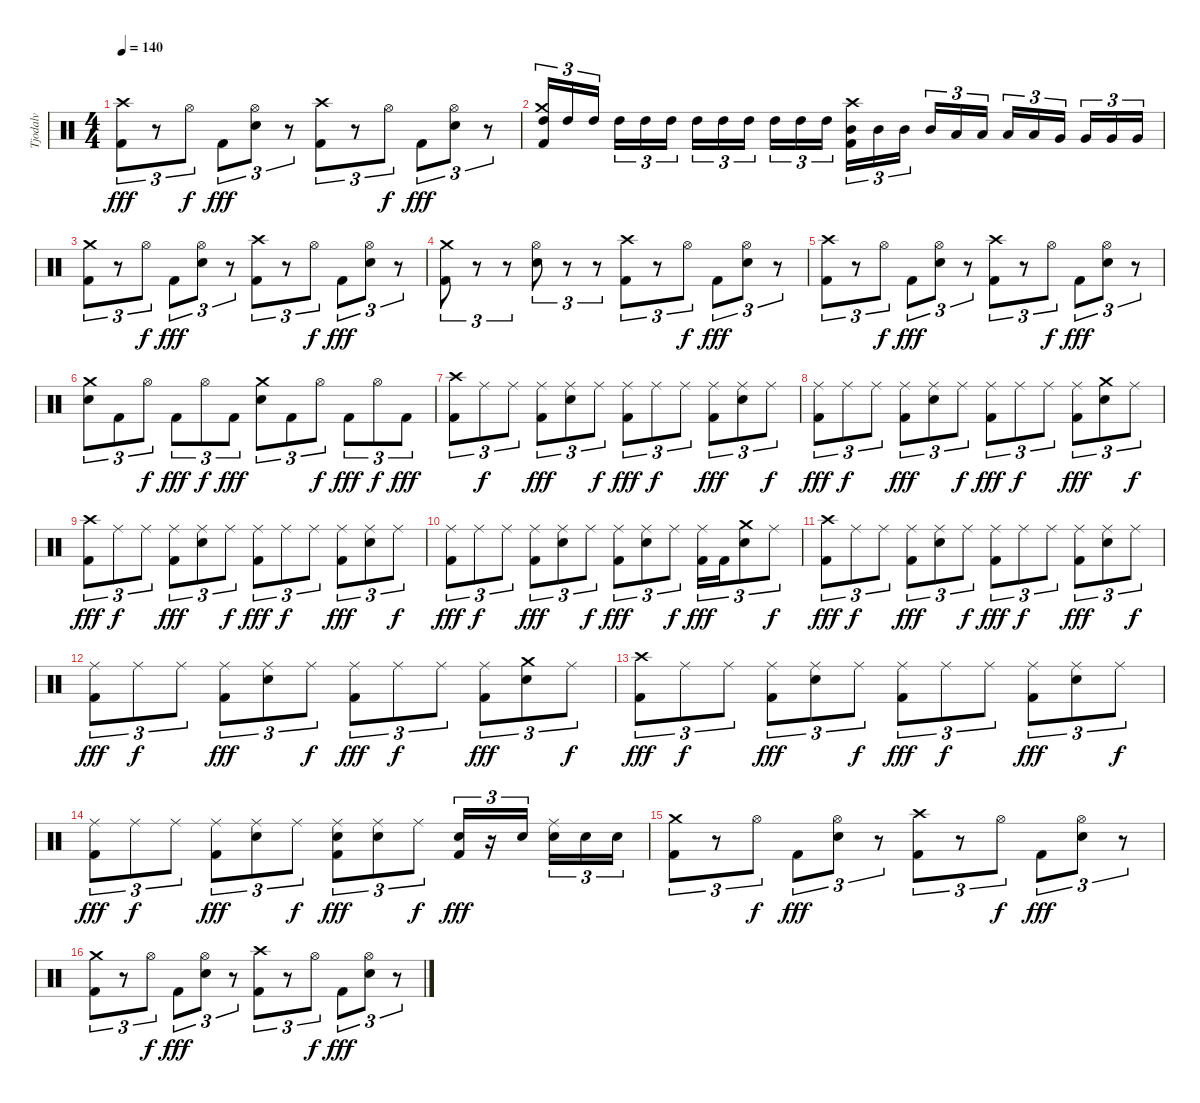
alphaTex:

\track ("Tjodalv" "Tjodalv") {instrument percussion}
\staff {score}
\articulation defaults
\ts (4 4)
\tempo 140
\clef neutral
\ks c
("Crash high (hit)" "Kick (hit) 2").8{tu (3 2) dy fff} r.8{tu (3 2)} "Hi-Hat (open)".8{tu (3 2) dy f} "Kick (hit) 2".8{tu (3 2) dy fff} ("Hi-Hat (open)" "Snare (hit) 2").8{tu (3 2)} r.8{tu (3 2)} ("Crash high (hit)" "Kick (hit) 2").8{tu (3 2)} r.8{tu (3 2)} "Hi-Hat (open)".8{tu (3 2) dy f} "Kick (hit) 2".8{tu (3 2) dy fff} ("Hi-Hat (open)" "Snare (hit) 2").8{tu (3 2)} r.8{tu (3 2)} |
("Crash medium (hit)" "High Tom (hit)" "Kick (hit) 2").16{tu (3 2)} "High Tom (hit)".16{tu (3 2)} "High Tom (hit)".16{tu (3 2) beam splitsecondary} "High Tom (hit)".16{tu (3 2)} "High Tom (hit)".16{tu (3 2)} "High Tom (hit)".16{tu (3 2)} "High Tom (hit)".16{tu (3 2)} "High Tom (hit)".16{tu (3 2)} "High Tom (hit)".16{tu (3 2) beam splitsecondary} "High Tom (hit)".16{tu (3 2)} "High Tom (hit)".16{tu (3 2)} "High Tom (hit)".16{tu (3 2)} ("Crash high (hit)" "Mid Tom (hit)" "Kick (hit) 2").16{tu (3 2)} "Mid Tom (hit)".16{tu (3 2)} "Mid Tom (hit)".16{tu (3 2) beam splitsecondary} "Mid Tom (hit)".16{tu (3 2)} "Low Tom (hit)".16{tu (3 2)} "Low Tom (hit)".16{tu (3 2)} "Low Tom (hit)".16{tu (3 2)} "Low Tom (hit)".16{tu (3 2)} "Very Low Tom (hit)".16{tu (3 2) beam splitsecondary} "Very Low Tom (hit)".16{tu (3 2)} "Very Low Tom (hit)".16{tu (3 2)} "Very Low Tom (hit)".16{tu (3 2)} |
("Crash medium (hit)" "Kick (hit) 2").8{tu (3 2)} r.8{tu (3 2)} "Hi-Hat (open)".8{tu (3 2) dy f} "Kick (hit) 2".8{tu (3 2) dy fff} ("Hi-Hat (open)" "Snare (hit) 2").8{tu (3 2)} r.8{tu (3 2)} ("Crash high (hit)" "Kick (hit) 2").8{tu (3 2)} r.8{tu (3 2)} "Hi-Hat (open)".8{tu (3 2) dy f} "Kick (hit) 2".8{tu (3 2) dy fff} ("Hi-Hat (open)" "Snare (hit) 2").8{tu (3 2)} r.8{tu (3 2)} |
("Crash medium (hit)" "Kick (hit) 2").8{tu (3 2)} r.8{tu (3 2)} r.8{tu (3 2)} ("Hi-Hat (open)" "Snare (hit) 2").8{tu (3 2)} r.8{tu (3 2)} r.8{tu (3 2)} ("Crash high (hit)" "Kick (hit) 2").8{tu (3 2)} r.8{tu (3 2)} "Hi-Hat (open)".8{tu (3 2) dy f} "Kick (hit) 2".8{tu (3 2) dy fff} ("Hi-Hat (open)" "Snare (hit) 2").8{tu (3 2)} r.8{tu (3 2)} |
("Crash high (hit)" "Kick (hit) 2").8{tu (3 2)} r.8{tu (3 2)} "Hi-Hat (open)".8{tu (3 2) dy f} "Kick (hit) 2".8{tu (3 2) dy fff} ("Hi-Hat (open)" "Snare (hit) 2").8{tu (3 2)} r.8{tu (3 2)} ("Crash high (hit)" "Kick (hit) 2").8{tu (3 2)} r.8{tu (3 2)} "Hi-Hat (open)".8{tu (3 2) dy f} "Kick (hit) 2".8{tu (3 2) dy fff} ("Hi-Hat (open)" "Snare (hit) 2").8{tu (3 2)} r.8{tu (3 2)} |
("Crash medium (hit)" "Snare (hit) 2").8{tu (3 2)} "Kick (hit) 2".8{tu (3 2)} "Hi-Hat (open)".8{tu (3 2) dy f} "Kick (hit) 2".8{tu (3 2) dy fff} "Hi-Hat (open)".8{tu (3 2) dy f} "Kick (hit) 2".8{tu (3 2) dy fff} ("Crash medium (hit)" "Snare (hit) 2").8{tu (3 2)} "Kick (hit) 2".8{tu (3 2)} "Hi-Hat (open)".8{tu (3 2) dy f} "Kick (hit) 2".8{tu (3 2) dy fff} "Hi-Hat (open)".8{tu (3 2) dy f} "Kick (hit) 2".8{tu (3 2) dy fff} |
("Crash high (hit)" "Kick (hit) 2").8{tu (3 2)} "Ride (middle)".8{tu (3 2) dy f} "Ride (middle)".8{tu (3 2)} ("Ride (middle)" "Kick (hit) 2").8{tu (3 2) dy fff} ("Ride (middle)" "Snare (hit) 2").8{tu (3 2)} "Ride (middle)".8{tu (3 2) dy f} ("Ride (middle)" "Kick (hit) 2").8{tu (3 2) dy fff} "Ride (middle)".8{tu (3 2) dy f} "Ride (middle)".8{tu (3 2)} ("Ride (middle)" "Kick (hit) 2").8{tu (3 2) dy fff} ("Ride (middle)" "Snare (hit) 2").8{tu (3 2)} "Ride (middle)".8{tu (3 2) dy f} |
("Ride (middle)" "Kick (hit) 2").8{tu (3 2) dy fff} "Ride (middle)".8{tu (3 2) dy f} "Ride (middle)".8{tu (3 2)} ("Ride (middle)" "Kick (hit) 2").8{tu (3 2) dy fff} ("Ride (middle)" "Snare (hit) 2").8{tu (3 2)} "Ride (middle)".8{tu (3 2) dy f} ("Ride (middle)" "Kick (hit) 2").8{tu (3 2) dy fff} "Ride (middle)".8{tu (3 2) dy f} "Ride (middle)".8{tu (3 2)} ("Ride (middle)" "Kick (hit) 2").8{tu (3 2) dy fff} ("Crash medium (hit)" "Snare (hit) 2").8{tu (3 2)} "Ride (middle)".8{tu (3 2) dy f} |
("Crash high (hit)" "Kick (hit) 2").8{tu (3 2) dy fff} "Ride (middle)".8{tu (3 2) dy f} "Ride (middle)".8{tu (3 2)} ("Ride (middle)" "Kick (hit) 2").8{tu (3 2) dy fff} ("Ride (middle)" "Snare (hit) 2").8{tu (3 2)} "Ride (middle)".8{tu (3 2) dy f} ("Ride (middle)" "Kick (hit) 2").8{tu (3 2) dy fff} "Ride (middle)".8{tu (3 2) dy f} "Ride (middle)".8{tu (3 2)} ("Ride (middle)" "Kick (hit) 2").8{tu (3 2) dy fff} ("Ride (middle)" "Snare (hit) 2").8{tu (3 2)} "Ride (middle)".8{tu (3 2) dy f} |
("Ride (middle)" "Kick (hit) 2").8{tu (3 2) dy fff} "Ride (middle)".8{tu (3 2) dy f} "Ride (middle)".8{tu (3 2)} ("Ride (middle)" "Kick (hit) 2").8{tu (3 2) dy fff} ("Ride (middle)" "Snare (hit) 2").8{tu (3 2)} "Ride (middle)".8{tu (3 2) dy f} ("Ride (middle)" "Kick (hit) 2").8{tu (3 2) dy fff} ("Ride (middle)" "Snare (hit) 2").8{tu (3 2)} "Ride (middle)".8{tu (3 2) dy f} ("Ride (middle)" "Kick (hit) 2").16{tu (3 2) dy fff} "Kick (hit) 2".16{tu (3 2)} ("Crash medium (hit)" "Snare (hit) 2").8{tu (3 2)} "Ride (middle)".8{tu (3 2) dy f} |
("Crash high (hit)" "Kick (hit) 2").8{tu (3 2) dy fff} "Ride (middle)".8{tu (3 2) dy f} "Ride (middle)".8{tu (3 2)} ("Ride (middle)" "Kick (hit) 2").8{tu (3 2) dy fff} ("Ride (middle)" "Snare (hit) 2").8{tu (3 2)} "Ride (middle)".8{tu (3 2) dy f} ("Ride (middle)" "Kick (hit) 2").8{tu (3 2) dy fff} "Ride (middle)".8{tu (3 2) dy f} "Ride (middle)".8{tu (3 2)} ("Ride (middle)" "Kick (hit) 2").8{tu (3 2) dy fff} ("Ride (middle)" "Snare (hit) 2").8{tu (3 2)} "Ride (middle)".8{tu (3 2) dy f} |
("Ride (middle)" "Kick (hit) 2").8{tu (3 2) dy fff} "Ride (middle)".8{tu (3 2) dy f} "Ride (middle)".8{tu (3 2)} ("Ride (middle)" "Kick (hit) 2").8{tu (3 2) dy fff} ("Ride (middle)" "Snare (hit) 2").8{tu (3 2)} "Ride (middle)".8{tu (3 2) dy f} ("Ride (middle)" "Kick (hit) 2").8{tu (3 2) dy fff} "Ride (middle)".8{tu (3 2) dy f} "Ride (middle)".8{tu (3 2)} ("Ride (middle)" "Kick (hit) 2").8{tu (3 2) dy fff} ("Crash medium (hit)" "Snare (hit) 2").8{tu (3 2)} "Ride (middle)".8{tu (3 2) dy f} |
("Crash high (hit)" "Kick (hit) 2").8{tu (3 2) dy fff} "Ride (middle)".8{tu (3 2) dy f} "Ride (middle)".8{tu (3 2)} ("Ride (middle)" "Kick (hit) 2").8{tu (3 2) dy fff} ("Ride (middle)" "Snare (hit) 2").8{tu (3 2)} "Ride (middle)".8{tu (3 2) dy f} ("Ride (middle)" "Kick (hit) 2").8{tu (3 2) dy fff} "Ride (middle)".8{tu (3 2) dy f} "Ride (middle)".8{tu (3 2)} ("Ride (middle)" "Kick (hit) 2").8{tu (3 2) dy fff} ("Ride (middle)" "Snare (hit) 2").8{tu (3 2)} "Ride (middle)".8{tu (3 2) dy f} |
("Ride (middle)" "Kick (hit) 2").8{tu (3 2) dy fff} "Ride (middle)".8{tu (3 2) dy f} "Ride (middle)".8{tu (3 2)} ("Ride (middle)" "Kick (hit) 2").8{tu (3 2) dy fff} ("Ride (middle)" "Snare (hit) 2").8{tu (3 2)} "Ride (middle)".8{tu (3 2) dy f} ("Ride (middle)" "Snare (hit) 2" "Kick (hit) 2").8{tu (3 2) dy fff} ("Ride (middle)" "Snare (hit) 2").8{tu (3 2)} "Ride (middle)".8{tu (3 2) dy f} ("Snare (hit) 2" "Kick (hit) 2").16{tu (3 2) dy fff} r.16{tu (3 2)} "Snare (hit) 2".16{tu (3 2) beam splitsecondary} ("Ride (middle)" "Snare (hit) 2").16{tu (3 2)} "Snare (hit) 2".16{tu (3 2)} "Snare (hit) 2".16{tu (3 2)} |
("Crash medium (hit)" "Kick (hit) 2").8{tu (3 2)} r.8{tu (3 2)} "Hi-Hat (open)".8{tu (3 2) dy f} "Kick (hit) 2".8{tu (3 2) dy fff} ("Hi-Hat (open)" "Snare (hit) 2").8{tu (3 2)} r.8{tu (3 2)} ("Crash high (hit)" "Kick (hit) 2").8{tu (3 2)} r.8{tu (3 2)} "Hi-Hat (open)".8{tu (3 2) dy f} "Kick (hit) 2".8{tu (3 2) dy fff} ("Hi-Hat (open)" "Snare (hit) 2").8{tu (3 2)} r.8{tu (3 2)} |
("Crash medium (hit)" "Kick (hit) 2").8{tu (3 2)} r.8{tu (3 2)} "Hi-Hat (open)".8{tu (3 2) dy f} "Kick (hit) 2".8{tu (3 2) dy fff} ("Hi-Hat (open)" "Snare (hit) 2").8{tu (3 2)} r.8{tu (3 2)} ("Crash high (hit)" "Kick (hit) 2").8{tu (3 2)} r.8{tu (3 2)} "Hi-Hat (open)".8{tu (3 2) dy f} "Kick (hit) 2".8{tu (3 2) dy fff} ("Hi-Hat (open)" "Snare (hit) 2").8{tu (3 2)} r.8{tu (3 2)}
